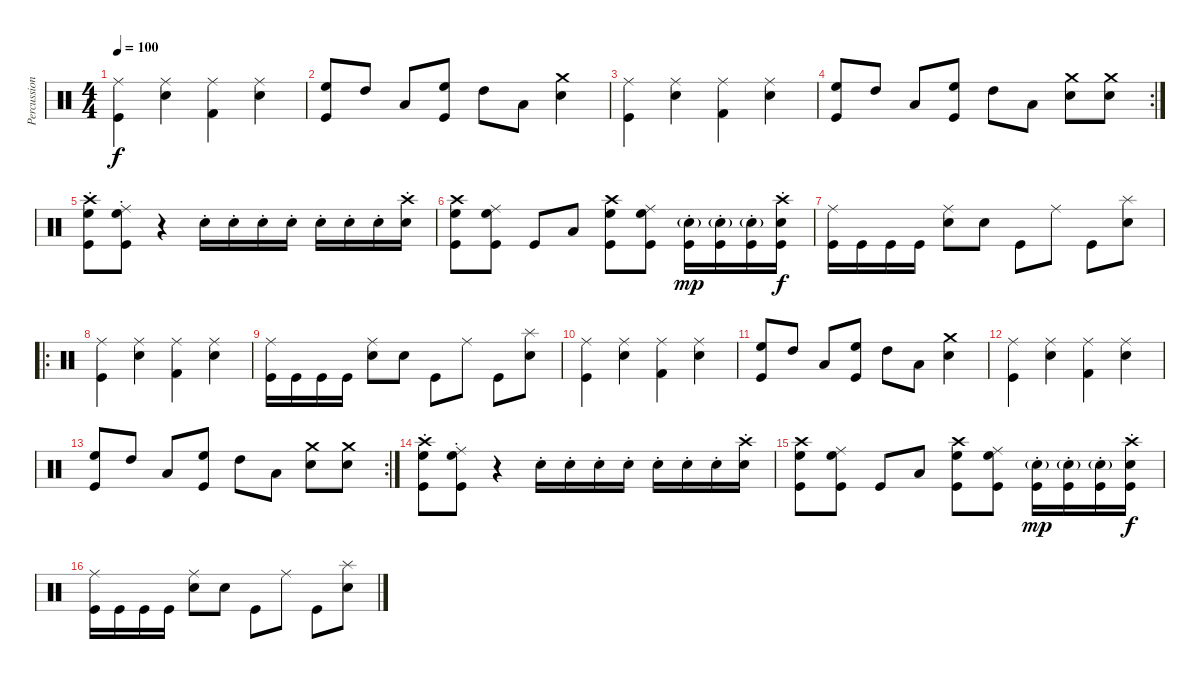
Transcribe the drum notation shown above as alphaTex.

\track ("Percussions" "Percussion") {mute instrument percussion}
\staff {score}
\articulation defaults
\ts (4 4)
\tempo 100
\clef neutral
\ks c
("Kick (hit)" "Ride (middle)").4{dy f} ("Snare (hit) 2" "Ride (middle)").4 ("Kick (hit) 2" "Ride (middle)").4 ("Snare (hit) 2" "Ride (middle)").4 |
("Kick (hit)" "High Floor Tom (hit)").8 "High Tom (hit)".8 "Low Tom (hit)".8 ("Kick (hit)" "High Floor Tom (hit)").8 "High Tom (hit)".8 "Low Tom (hit)".8 ("Snare (hit) 2" "Crash medium (hit)").4 |
("Kick (hit)" "Ride (middle)").4 ("Snare (hit) 2" "Ride (middle)").4 ("Kick (hit) 2" "Ride (middle)").4 ("Snare (hit) 2" "Ride (middle)").4 |
\rc 2
("Kick (hit)" "High Floor Tom (hit)").8 "High Tom (hit)".8 "Low Tom (hit)".8 ("Kick (hit)" "High Floor Tom (hit)").8 "High Tom (hit)".8 "Low Tom (hit)".8 ("Snare (hit) 2" "Crash medium (hit)").8 ("Snare (hit) 2" "Crash medium (hit)").8 |
("Kick (hit)"{st} "High Floor Tom (hit)"{st} "Crash high (hit)"{st}).8 ("Kick (hit)"{st} "High Floor Tom (hit)"{st} "Ride (middle)"{st}).8 r.4 "Snare (hit) 2"{st}.16 "Snare (hit) 2"{st}.16 "Snare (hit) 2"{st}.16 "Snare (hit) 2"{st}.16 "Snare (hit) 2"{st}.16 "Snare (hit) 2"{st}.16 "Snare (hit) 2"{st}.16 ("Snare (hit) 2"{st} "Crash high (hit)"{st}).16 |
("Kick (hit)" "High Floor Tom (hit)" "Crash high (hit)").8 ("Kick (hit)" "High Floor Tom (hit)" "Ride (middle)").8 "Kick (hit)".8 "Low Tom (hit)".8 ("Kick (hit)" "High Floor Tom (hit)" "Crash high (hit)").8 ("Kick (hit)" "High Floor Tom (hit)" "Ride (middle)").8 ("Snare (hit) 2"{g st} "Kick (hit)").16{dy mp} ("Snare (hit) 2"{g st} "Kick (hit)").16 ("Snare (hit) 2"{g st} "Kick (hit)").16 ("Snare (hit) 2"{st} "Crash high (hit)"{st} "Kick (hit)").16{dy f} |
("Kick (hit)" "Ride (middle)").16 "Kick (hit)".16 "Kick (hit)".16 "Kick (hit)".16 ("Snare (hit) 2" "Ride (middle)").8 "Snare (hit) 2".8 "Kick (hit)".8 "Ride (middle)".8 "Kick (hit)".8 ("Snare (hit) 2" "Splash (hit)").8 |
\ro
("Kick (hit)" "Ride (middle)").4 ("Snare (hit) 2" "Ride (middle)").4 ("Kick (hit) 2" "Ride (middle)").4 ("Snare (hit) 2" "Ride (middle)").4 |
("Kick (hit)" "Ride (middle)").16 "Kick (hit)".16 "Kick (hit)".16 "Kick (hit)".16 ("Snare (hit) 2" "Ride (middle)").8 "Snare (hit) 2".8 "Kick (hit)".8 "Ride (middle)".8 "Kick (hit)".8 ("Snare (hit) 2" "Splash (hit)").8 |
("Kick (hit)" "Ride (middle)").4 ("Snare (hit) 2" "Ride (middle)").4 ("Kick (hit) 2" "Ride (middle)").4 ("Snare (hit) 2" "Ride (middle)").4 |
("Kick (hit)" "High Floor Tom (hit)").8 "High Tom (hit)".8 "Low Tom (hit)".8 ("Kick (hit)" "High Floor Tom (hit)").8 "High Tom (hit)".8 "Low Tom (hit)".8 ("Snare (hit) 2" "Crash medium (hit)").4 |
("Kick (hit)" "Ride (middle)").4 ("Snare (hit) 2" "Ride (middle)").4 ("Kick (hit) 2" "Ride (middle)").4 ("Snare (hit) 2" "Ride (middle)").4 |
\rc 2
("Kick (hit)" "High Floor Tom (hit)").8 "High Tom (hit)".8 "Low Tom (hit)".8 ("Kick (hit)" "High Floor Tom (hit)").8 "High Tom (hit)".8 "Low Tom (hit)".8 ("Snare (hit) 2" "Crash medium (hit)").8 ("Snare (hit) 2" "Crash medium (hit)").8 |
("Kick (hit)"{st} "High Floor Tom (hit)"{st} "Crash high (hit)"{st}).8 ("Kick (hit)"{st} "High Floor Tom (hit)"{st} "Ride (middle)"{st}).8 r.4 "Snare (hit) 2"{st}.16 "Snare (hit) 2"{st}.16 "Snare (hit) 2"{st}.16 "Snare (hit) 2"{st}.16 "Snare (hit) 2"{st}.16 "Snare (hit) 2"{st}.16 "Snare (hit) 2"{st}.16 ("Snare (hit) 2"{st} "Crash high (hit)"{st}).16 |
("Kick (hit)" "High Floor Tom (hit)" "Crash high (hit)").8 ("Kick (hit)" "High Floor Tom (hit)" "Ride (middle)").8 "Kick (hit)".8 "Low Tom (hit)".8 ("Kick (hit)" "High Floor Tom (hit)" "Crash high (hit)").8 ("Kick (hit)" "High Floor Tom (hit)" "Ride (middle)").8 ("Snare (hit) 2"{g st} "Kick (hit)").16{dy mp} ("Snare (hit) 2"{g st} "Kick (hit)").16 ("Snare (hit) 2"{g st} "Kick (hit)").16 ("Snare (hit) 2"{st} "Crash high (hit)"{st} "Kick (hit)").16{dy f} |
("Kick (hit)" "Ride (middle)").16 "Kick (hit)".16 "Kick (hit)".16 "Kick (hit)".16 ("Snare (hit) 2" "Ride (middle)").8 "Snare (hit) 2".8 "Kick (hit)".8 "Ride (middle)".8 "Kick (hit)".8 ("Snare (hit) 2" "Splash (hit)").8
